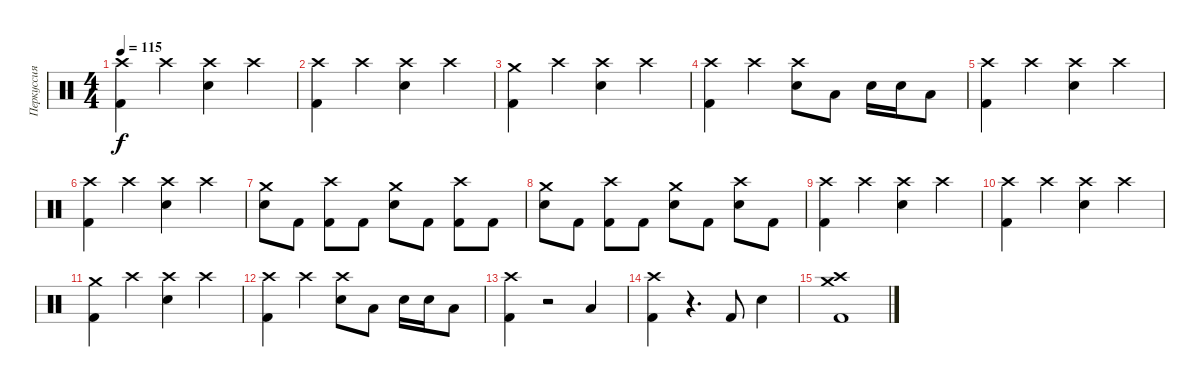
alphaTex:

\track ("Перкуссия" "Перкуссия") {instrument percussion}
\staff {score}
\articulation defaults
\ts (4 4)
\tempo 115
\clef neutral
\ks c
("Crash high (hit)" "Kick (hit) 2").4{dy f} "Crash high (hit)".4 ("Crash high (hit)" "Snare (hit) 2").4 "Crash high (hit)".4 |
("Crash high (hit)" "Kick (hit) 2").4 "Crash high (hit)".4 ("Crash high (hit)" "Snare (hit) 2").4 "Crash high (hit)".4 |
("Crash medium (hit)" "Kick (hit) 2").4 "Crash high (hit)".4 ("Crash high (hit)" "Snare (hit) 2").4 "Crash high (hit)".4 |
("Crash high (hit)" "Kick (hit) 2").4 "Crash high (hit)".4 ("Crash high (hit)" "Snare (hit) 2").8 "Low Tom (hit)".8 "Snare (hit) 2".16 "Snare (hit) 2".16 "Low Tom (hit)".8 |
("Crash high (hit)" "Kick (hit) 2").4 "Crash high (hit)".4 ("Crash high (hit)" "Snare (hit) 2").4 "Crash high (hit)".4 |
("Crash high (hit)" "Kick (hit) 2").4 "Crash high (hit)".4 ("Crash high (hit)" "Snare (hit) 2").4 "Crash high (hit)".4 |
("Crash medium (hit)" "Snare (hit) 2").8 "Kick (hit) 2".8 ("Crash high (hit)" "Kick (hit) 2").8 "Kick (hit) 2".8 ("Crash medium (hit)" "Snare (hit) 2").8 "Kick (hit) 2".8 ("Crash high (hit)" "Kick (hit) 2").8 "Kick (hit) 2".8 |
("Crash medium (hit)" "Snare (hit) 2").8 "Kick (hit) 2".8 ("Crash high (hit)" "Kick (hit) 2").8 "Kick (hit) 2".8 ("Crash medium (hit)" "Snare (hit) 2").8 "Kick (hit) 2".8 ("Crash high (hit)" "Snare (hit) 2").8 "Kick (hit) 2".8 |
("Crash high (hit)" "Kick (hit) 2").4 "Crash high (hit)".4 ("Crash high (hit)" "Snare (hit) 2").4 "Crash high (hit)".4 |
("Crash high (hit)" "Kick (hit) 2").4 "Crash high (hit)".4 ("Crash high (hit)" "Snare (hit) 2").4 "Crash high (hit)".4 |
("Crash medium (hit)" "Kick (hit) 2").4 "Crash high (hit)".4 ("Crash high (hit)" "Snare (hit) 2").4 "Crash high (hit)".4 |
("Crash high (hit)" "Kick (hit) 2").4 "Crash high (hit)".4 ("Crash high (hit)" "Snare (hit) 2").8 "Low Tom (hit)".8 "Snare (hit) 2".16 "Snare (hit) 2".16 "Low Tom (hit)".8 |
("Crash high (hit)" "Kick (hit) 2").4 r.2 "Low Tom (hit)".4 |
("Crash high (hit)" "Kick (hit) 2").4 r.4{d} "Kick (hit) 2".8 "Snare (hit) 2".4 |
("Crash high (hit)" "Crash medium (hit)" "Kick (hit) 2").1
